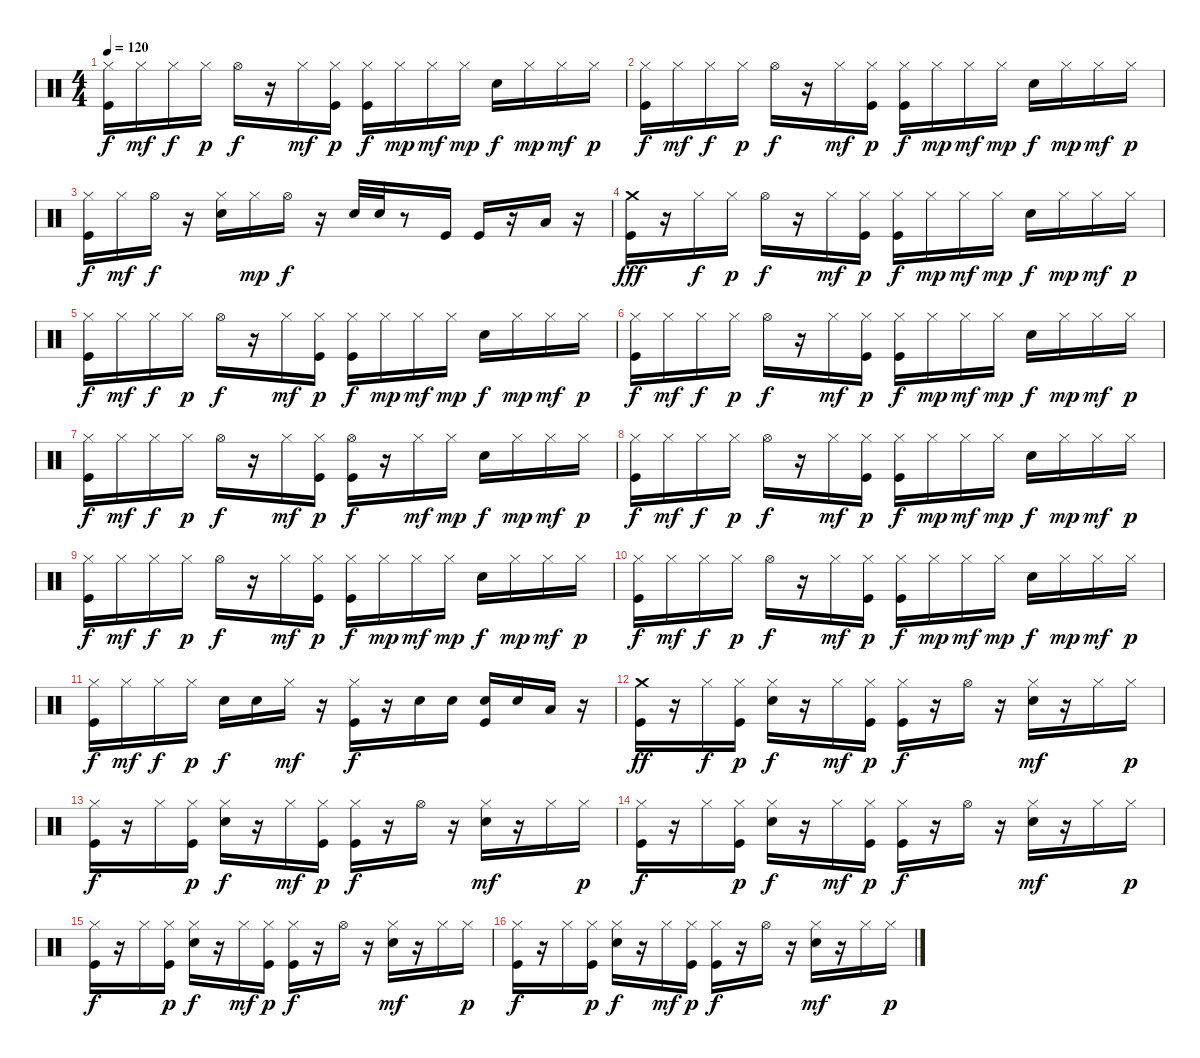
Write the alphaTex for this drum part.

\track "" {instrument percussion}
\staff {score}
\articulation defaults
\ts (4 4)
\tempo 120
\clef neutral
\ks c
("Kick (hit)" "Hi-Hat (closed)").16{dy f} "Hi-Hat (closed)".16{dy mf} "Hi-Hat (closed)".16{dy f} "Hi-Hat (closed)".16{dy p} "Hi-Hat (open)".16{dy f} r.16 "Hi-Hat (closed)".16{dy mf} ("Kick (hit)" "Hi-Hat (closed)").16{dy p} ("Kick (hit)" "Hi-Hat (closed)").16{dy f} "Hi-Hat (closed)".16{dy mp} "Hi-Hat (closed)".16{dy mf} "Hi-Hat (closed)".16{dy mp} "Electric Snare (hit)".16{dy f} "Hi-Hat (closed)".16{dy mp} "Hi-Hat (closed)".16{dy mf} "Hi-Hat (closed)".16{dy p} |
("Kick (hit)" "Hi-Hat (closed)").16{dy f} "Hi-Hat (closed)".16{dy mf} "Hi-Hat (closed)".16{dy f} "Hi-Hat (closed)".16{dy p} "Hi-Hat (open)".16{dy f} r.16 "Hi-Hat (closed)".16{dy mf} ("Kick (hit)" "Hi-Hat (closed)").16{dy p} ("Kick (hit)" "Hi-Hat (closed)").16{dy f} "Hi-Hat (closed)".16{dy mp} "Hi-Hat (closed)".16{dy mf} "Hi-Hat (closed)".16{dy mp} "Electric Snare (hit)".16{dy f} "Hi-Hat (closed)".16{dy mp} "Hi-Hat (closed)".16{dy mf} "Hi-Hat (closed)".16{dy p} |
("Kick (hit)" "Hi-Hat (closed)").16{dy f} "Hi-Hat (closed)".16{dy mf} "Hi-Hat (open)".16{dy f} r.16 ("Electric Snare (hit)" "Hi-Hat (closed)").16 "Hi-Hat (closed)".16{dy mp} "Hi-Hat (open)".16{dy f} r.16 "Electric Snare (hit)".32 "Electric Snare (hit)".32 r.8 "Kick (hit)".16 "Kick (hit)".16 r.16 "Low Tom (hit)".16 r.16 |
("Kick (hit)" "Crash medium (hit)").16{dy fff} r.16 "Hi-Hat (closed)".16{dy f} "Hi-Hat (closed)".16{dy p} "Hi-Hat (open)".16{dy f} r.16 "Hi-Hat (closed)".16{dy mf} ("Kick (hit)" "Hi-Hat (closed)").16{dy p} ("Kick (hit)" "Hi-Hat (closed)").16{dy f} "Hi-Hat (closed)".16{dy mp} "Hi-Hat (closed)".16{dy mf} "Hi-Hat (closed)".16{dy mp} "Electric Snare (hit)".16{dy f} "Hi-Hat (closed)".16{dy mp} "Hi-Hat (closed)".16{dy mf} "Hi-Hat (closed)".16{dy p} |
("Kick (hit)" "Hi-Hat (closed)").16{dy f} "Hi-Hat (closed)".16{dy mf} "Hi-Hat (closed)".16{dy f} "Hi-Hat (closed)".16{dy p} "Hi-Hat (open)".16{dy f} r.16 "Hi-Hat (closed)".16{dy mf} ("Kick (hit)" "Hi-Hat (closed)").16{dy p} ("Kick (hit)" "Hi-Hat (closed)").16{dy f} "Hi-Hat (closed)".16{dy mp} "Hi-Hat (closed)".16{dy mf} "Hi-Hat (closed)".16{dy mp} "Electric Snare (hit)".16{dy f} "Hi-Hat (closed)".16{dy mp} "Hi-Hat (closed)".16{dy mf} "Hi-Hat (closed)".16{dy p} |
("Kick (hit)" "Hi-Hat (closed)").16{dy f} "Hi-Hat (closed)".16{dy mf} "Hi-Hat (closed)".16{dy f} "Hi-Hat (closed)".16{dy p} "Hi-Hat (open)".16{dy f} r.16 "Hi-Hat (closed)".16{dy mf} ("Kick (hit)" "Hi-Hat (closed)").16{dy p} ("Kick (hit)" "Hi-Hat (closed)").16{dy f} "Hi-Hat (closed)".16{dy mp} "Hi-Hat (closed)".16{dy mf} "Hi-Hat (closed)".16{dy mp} "Electric Snare (hit)".16{dy f} "Hi-Hat (closed)".16{dy mp} "Hi-Hat (closed)".16{dy mf} "Hi-Hat (closed)".16{dy p} |
("Kick (hit)" "Hi-Hat (closed)").16{dy f} "Hi-Hat (closed)".16{dy mf} "Hi-Hat (closed)".16{dy f} "Hi-Hat (closed)".16{dy p} "Hi-Hat (open)".16{dy f} r.16 "Hi-Hat (closed)".16{dy mf} ("Kick (hit)" "Hi-Hat (closed)").16{dy p} ("Kick (hit)" "Hi-Hat (open)").16{dy f} r.16 "Hi-Hat (closed)".16{dy mf} "Hi-Hat (closed)".16{dy mp} "Electric Snare (hit)".16{dy f} "Hi-Hat (closed)".16{dy mp} "Hi-Hat (closed)".16{dy mf} "Hi-Hat (closed)".16{dy p} |
("Kick (hit)" "Hi-Hat (closed)").16{dy f} "Hi-Hat (closed)".16{dy mf} "Hi-Hat (closed)".16{dy f} "Hi-Hat (closed)".16{dy p} "Hi-Hat (open)".16{dy f} r.16 "Hi-Hat (closed)".16{dy mf} ("Kick (hit)" "Hi-Hat (closed)").16{dy p} ("Kick (hit)" "Hi-Hat (closed)").16{dy f} "Hi-Hat (closed)".16{dy mp} "Hi-Hat (closed)".16{dy mf} "Hi-Hat (closed)".16{dy mp} "Electric Snare (hit)".16{dy f} "Hi-Hat (closed)".16{dy mp} "Hi-Hat (closed)".16{dy mf} "Hi-Hat (closed)".16{dy p} |
("Kick (hit)" "Hi-Hat (closed)").16{dy f} "Hi-Hat (closed)".16{dy mf} "Hi-Hat (closed)".16{dy f} "Hi-Hat (closed)".16{dy p} "Hi-Hat (open)".16{dy f} r.16 "Hi-Hat (closed)".16{dy mf} ("Kick (hit)" "Hi-Hat (closed)").16{dy p} ("Kick (hit)" "Hi-Hat (closed)").16{dy f} "Hi-Hat (closed)".16{dy mp} "Hi-Hat (closed)".16{dy mf} "Hi-Hat (closed)".16{dy mp} "Electric Snare (hit)".16{dy f} "Hi-Hat (closed)".16{dy mp} "Hi-Hat (closed)".16{dy mf} "Hi-Hat (closed)".16{dy p} |
("Kick (hit)" "Hi-Hat (closed)").16{dy f} "Hi-Hat (closed)".16{dy mf} "Hi-Hat (closed)".16{dy f} "Hi-Hat (closed)".16{dy p} "Hi-Hat (open)".16{dy f} r.16 "Hi-Hat (closed)".16{dy mf} ("Kick (hit)" "Hi-Hat (closed)").16{dy p} ("Kick (hit)" "Hi-Hat (closed)").16{dy f} "Hi-Hat (closed)".16{dy mp} "Hi-Hat (closed)".16{dy mf} "Hi-Hat (closed)".16{dy mp} "Electric Snare (hit)".16{dy f} "Hi-Hat (closed)".16{dy mp} "Hi-Hat (closed)".16{dy mf} "Hi-Hat (closed)".16{dy p} |
("Kick (hit)" "Hi-Hat (closed)").16{dy f} "Hi-Hat (closed)".16{dy mf} "Hi-Hat (closed)".16{dy f} "Hi-Hat (closed)".16{dy p} "Electric Snare (hit)".16{dy f} "Electric Snare (hit)".16 "Hi-Hat (closed)".16{dy mf} r.16 ("Kick (hit)" "Hi-Hat (closed)").16{dy f} r.16 "Electric Snare (hit)".16 "Electric Snare (hit)".16 ("Electric Snare (hit)" "Kick (hit)").16 "Electric Snare (hit)".16 "Low Tom (hit)".16 r.16 |
("Kick (hit)" "Crash medium (hit)").16{dy ff} r.16 "Hi-Hat (closed)".16{dy f} ("Kick (hit)" "Hi-Hat (closed)").16{dy p} ("Electric Snare (hit)" "Hi-Hat (closed)").16{dy f} r.16 "Hi-Hat (closed)".16{dy mf} ("Kick (hit)" "Hi-Hat (closed)").16{dy p} ("Kick (hit)" "Hi-Hat (closed)").16{dy f} r.16 "Hi-Hat (open)".16 r.16 ("Electric Snare (hit)" "Hi-Hat (closed)").16{dy mf} r.16 "Hi-Hat (closed)".16 "Hi-Hat (closed)".16{dy p} |
("Kick (hit)" "Hi-Hat (closed)").16{dy f} r.16 "Hi-Hat (closed)".16 ("Kick (hit)" "Hi-Hat (closed)").16{dy p} ("Electric Snare (hit)" "Hi-Hat (closed)").16{dy f} r.16 "Hi-Hat (closed)".16{dy mf} ("Kick (hit)" "Hi-Hat (closed)").16{dy p} ("Kick (hit)" "Hi-Hat (closed)").16{dy f} r.16 "Hi-Hat (open)".16 r.16 ("Electric Snare (hit)" "Hi-Hat (closed)").16{dy mf} r.16 "Hi-Hat (closed)".16 "Hi-Hat (closed)".16{dy p} |
("Kick (hit)" "Hi-Hat (closed)").16{dy f} r.16 "Hi-Hat (closed)".16 ("Kick (hit)" "Hi-Hat (closed)").16{dy p} ("Electric Snare (hit)" "Hi-Hat (closed)").16{dy f} r.16 "Hi-Hat (closed)".16{dy mf} ("Kick (hit)" "Hi-Hat (closed)").16{dy p} ("Kick (hit)" "Hi-Hat (closed)").16{dy f} r.16 "Hi-Hat (open)".16 r.16 ("Electric Snare (hit)" "Hi-Hat (closed)").16{dy mf} r.16 "Hi-Hat (closed)".16 "Hi-Hat (closed)".16{dy p} |
("Kick (hit)" "Hi-Hat (closed)").16{dy f} r.16 "Hi-Hat (closed)".16 ("Kick (hit)" "Hi-Hat (closed)").16{dy p} ("Electric Snare (hit)" "Hi-Hat (closed)").16{dy f} r.16 "Hi-Hat (closed)".16{dy mf} ("Kick (hit)" "Hi-Hat (closed)").16{dy p} ("Kick (hit)" "Hi-Hat (closed)").16{dy f} r.16 "Hi-Hat (open)".16 r.16 ("Electric Snare (hit)" "Hi-Hat (closed)").16{dy mf} r.16 "Hi-Hat (closed)".16 "Hi-Hat (closed)".16{dy p} |
("Kick (hit)" "Hi-Hat (closed)").16{dy f} r.16 "Hi-Hat (closed)".16 ("Kick (hit)" "Hi-Hat (closed)").16{dy p} ("Electric Snare (hit)" "Hi-Hat (closed)").16{dy f} r.16 "Hi-Hat (closed)".16{dy mf} ("Kick (hit)" "Hi-Hat (closed)").16{dy p} ("Kick (hit)" "Hi-Hat (closed)").16{dy f} r.16 "Hi-Hat (open)".16 r.16 ("Electric Snare (hit)" "Hi-Hat (closed)").16{dy mf} r.16 "Hi-Hat (closed)".16 "Hi-Hat (closed)".16{dy p}
